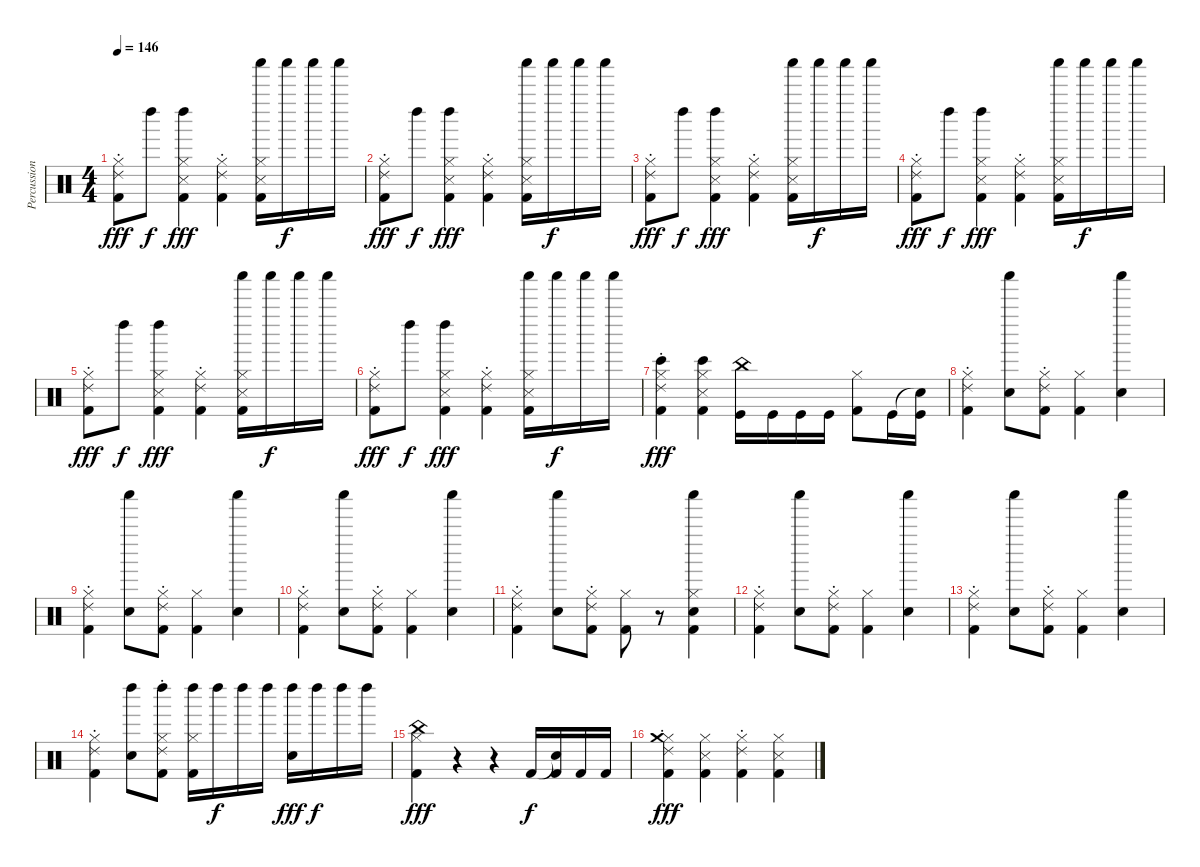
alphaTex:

\track ("Percussion" "Percussion") {instrument percussion}
\staff {score}
\articulation defaults
\ts (4 4)
\tempo 146
\clef neutral
\ks c
("Hi-Hat (closed)" "Ride (choke) 2" "Kick (hit) 2").8{dy fff} "Left Maraca (hit)".8{dy f} ("Hi-Hat (closed)" "Metronome (hit)" "Left Maraca (hit)" "Kick (hit) 2").4{dy fff} ("Hi-Hat (closed)" "Ride (choke) 2" "Kick (hit) 2").4 ("Hi-Hat (closed)" "Metronome (hit)" "Shaker (hit)" "Kick (hit) 2").16 "Shaker (hit)".16{dy f} "Shaker (hit)".16 "Shaker (hit)".16 |
("Hi-Hat (closed)" "Ride (choke) 2" "Kick (hit) 2").8{dy fff} "Left Maraca (hit)".8{dy f} ("Hi-Hat (closed)" "Metronome (hit)" "Left Maraca (hit)" "Kick (hit) 2").4{dy fff} ("Hi-Hat (closed)" "Ride (choke) 2" "Kick (hit) 2").4 ("Hi-Hat (closed)" "Metronome (hit)" "Shaker (hit)" "Kick (hit) 2").16 "Shaker (hit)".16{dy f} "Shaker (hit)".16 "Shaker (hit)".16 |
("Hi-Hat (closed)" "Ride (choke) 2" "Kick (hit) 2").8{dy fff} "Left Maraca (hit)".8{dy f} ("Hi-Hat (closed)" "Metronome (hit)" "Left Maraca (hit)" "Kick (hit) 2").4{dy fff} ("Hi-Hat (closed)" "Ride (choke) 2" "Kick (hit) 2").4 ("Hi-Hat (closed)" "Metronome (hit)" "Shaker (hit)" "Kick (hit) 2").16 "Shaker (hit)".16{dy f} "Shaker (hit)".16 "Shaker (hit)".16 |
("Hi-Hat (closed)" "Ride (choke) 2" "Kick (hit) 2").8{dy fff} "Left Maraca (hit)".8{dy f} ("Hi-Hat (closed)" "Metronome (hit)" "Left Maraca (hit)" "Kick (hit) 2").4{dy fff} ("Hi-Hat (closed)" "Ride (choke) 2" "Kick (hit) 2").4 ("Hi-Hat (closed)" "Metronome (hit)" "Shaker (hit)" "Kick (hit) 2").16 "Shaker (hit)".16{dy f} "Shaker (hit)".16 "Shaker (hit)".16 |
("Hi-Hat (closed)" "Ride (choke) 2" "Kick (hit) 2").8{dy fff} "Left Maraca (hit)".8{dy f} ("Hi-Hat (closed)" "Metronome (hit)" "Left Maraca (hit)" "Kick (hit) 2").4{dy fff} ("Hi-Hat (closed)" "Ride (choke) 2" "Kick (hit) 2").4 ("Hi-Hat (closed)" "Metronome (hit)" "Shaker (hit)" "Kick (hit) 2").16 "Shaker (hit)".16{dy f} "Shaker (hit)".16 "Shaker (hit)".16 |
("Hi-Hat (closed)" "Ride (choke) 2" "Kick (hit) 2").8{dy fff} "Left Maraca (hit)".8{dy f} ("Hi-Hat (closed)" "Metronome (hit)" "Left Maraca (hit)" "Kick (hit) 2").4{dy fff} ("Hi-Hat (closed)" "Ride (choke) 2" "Kick (hit) 2").4 ("Hi-Hat (closed)" "Metronome (hit)" "Shaker (hit)" "Kick (hit) 2").16 "Shaker (hit)".16{dy f} "Shaker (hit)".16 "Shaker (hit)".16 |
("Hi-Hat (closed)" "Ride (choke) 2" "Bongo High (hit)" "Kick (hit) 2").4{dy fff} ("Hi-Hat (closed)" "Metronome (hit)" "Bongo High (hit)" "Kick (hit) 2").4 ("China (hit)" "Kick (hit)").16 "Kick (hit)".16 "Kick (hit)".16 "Kick (hit)".16 ("Hi-Hat (closed)" "Kick (hit) 2").8 "Kick (hit)".16 ("Snare (hit)"{t} "Kick (hit)").16 |
("Hi-Hat (closed)" "Ride (choke) 2" "Kick (hit) 2").4 ("Hand Clap (hit)" "Shaker (hit)").8 ("Hi-Hat (closed)" "Ride (choke) 2" "Kick (hit) 2").8 ("Hi-Hat (closed)" "Kick (hit) 2").4 ("Hand Clap (hit)" "Shaker (hit)").4 |
("Hi-Hat (closed)" "Ride (choke) 2" "Kick (hit) 2").4 ("Hand Clap (hit)" "Shaker (hit)").8 ("Hi-Hat (closed)" "Ride (choke) 2" "Kick (hit) 2").8 ("Hi-Hat (closed)" "Kick (hit) 2").4 ("Hand Clap (hit)" "Shaker (hit)").4 |
("Hi-Hat (closed)" "Ride (choke) 2" "Kick (hit) 2").4 ("Hand Clap (hit)" "Shaker (hit)").8 ("Hi-Hat (closed)" "Ride (choke) 2" "Kick (hit) 2").8 ("Hi-Hat (closed)" "Kick (hit) 2").4 ("Hand Clap (hit)" "Shaker (hit)").4 |
("Hi-Hat (closed)" "Ride (choke) 2" "Kick (hit) 2").4 ("Hand Clap (hit)" "Shaker (hit)").8 ("Hi-Hat (closed)" "Ride (choke) 2" "Kick (hit) 2").8 ("Hi-Hat (closed)" "Kick (hit) 2").8 r.8 ("Hi-Hat (closed)" "Hand Clap (hit)" "Shaker (hit)" "Kick (hit) 2").4 |
("Hi-Hat (closed)" "Ride (choke) 2" "Kick (hit) 2").4 ("Hand Clap (hit)" "Shaker (hit)").8 ("Hi-Hat (closed)" "Ride (choke) 2" "Kick (hit) 2").8 ("Hi-Hat (closed)" "Kick (hit) 2").4 ("Hand Clap (hit)" "Shaker (hit)").4 |
("Hi-Hat (closed)" "Ride (choke) 2" "Kick (hit) 2").4 ("Hand Clap (hit)" "Shaker (hit)").8 ("Hi-Hat (closed)" "Ride (choke) 2" "Kick (hit) 2").8 ("Hi-Hat (closed)" "Kick (hit) 2").4 ("Hand Clap (hit)" "Shaker (hit)").4 |
("Hi-Hat (closed)" "Ride (choke) 2" "Kick (hit) 2").4 ("Hand Clap (hit)" "Left Maraca (hit)").8 ("Hi-Hat (closed)" "Ride (choke) 2" "Left Maraca (hit)" "Kick (hit) 2").8 ("Hi-Hat (closed)" "Left Maraca (hit)" "Kick (hit) 2").16 "Left Maraca (hit)".16{dy f} "Left Maraca (hit)".16 "Left Maraca (hit)".16 ("Hand Clap (hit)" "Left Maraca (hit)").16{dy fff} "Left Maraca (hit)".16{dy f} "Left Maraca (hit)".16 "Left Maraca (hit)".16 |
("Hi-Hat (closed)" "China (hit)" "Kick (hit) 2").4{dy fff} r.4 r.4 "Kick (hit) 2".16{dy f} ("Snare (hit)"{t} "Kick (hit) 2").16 "Kick (hit) 2".16 "Kick (hit) 2".16 |
("Hi-Hat (closed)" "Ride (choke) 2" "Crash medium (hit)" "Kick (hit) 2").4{dy fff} ("Hi-Hat (closed)" "Metronome (hit)" "Kick (hit) 2").4 ("Hi-Hat (closed)" "Ride (choke) 2" "Kick (hit) 2").4 ("Hi-Hat (closed)" "Metronome (hit)" "Kick (hit) 2").4
